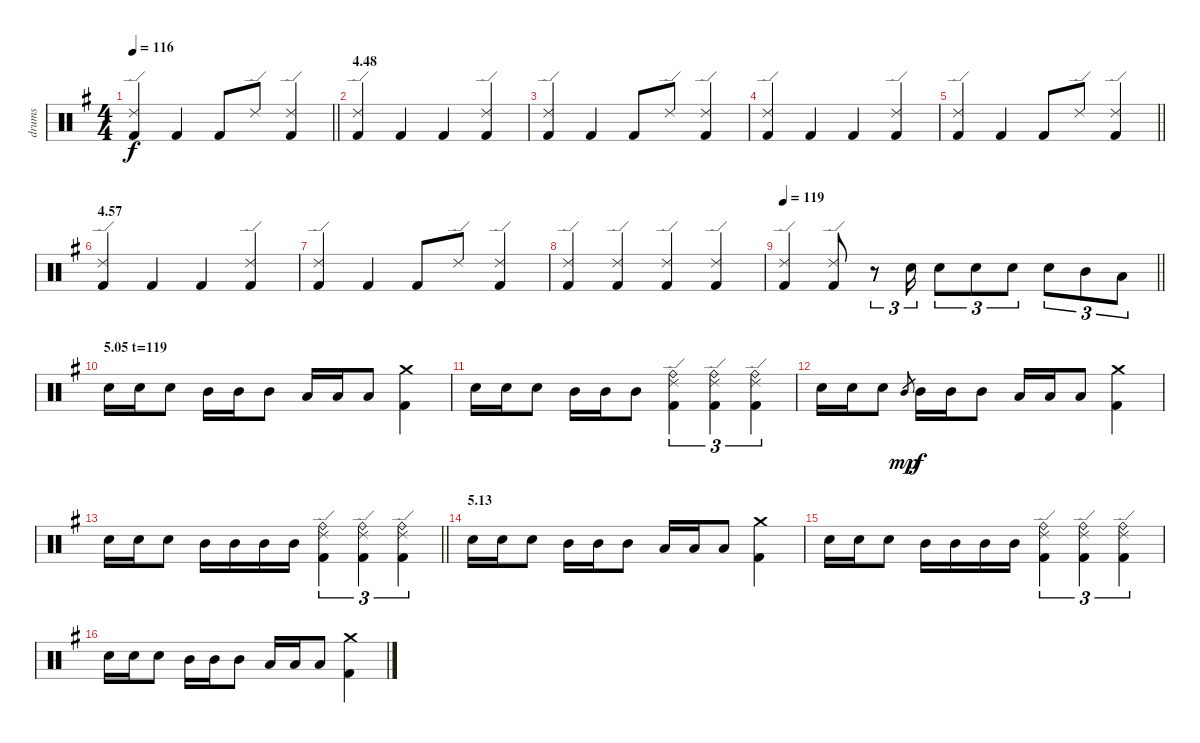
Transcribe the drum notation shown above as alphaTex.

\track ("drums" "drums") {instrument percussion}
\staff {score}
\articulation defaults
\ts (4 4)
\tempo 116
\clef neutral
\barLineRight lightlight
\ks g
("Ride (edge) 2" "Kick (hit) 2").4{dy f} "Kick (hit) 2".4 "Kick (hit) 2".8 "Ride (edge) 2".8 ("Ride (edge) 2" "Kick (hit) 2").4 |
\section ("" "4.48")
("Ride (edge) 2" "Kick (hit) 2").4 "Kick (hit) 2".4 "Kick (hit) 2".4 ("Ride (edge) 2" "Kick (hit) 2").4 |
("Ride (edge) 2" "Kick (hit) 2").4 "Kick (hit) 2".4 "Kick (hit) 2".8 "Ride (edge) 2".8 ("Ride (edge) 2" "Kick (hit) 2").4 |
("Ride (edge) 2" "Kick (hit) 2").4 "Kick (hit) 2".4 "Kick (hit) 2".4 ("Ride (edge) 2" "Kick (hit) 2").4 |
\barLineRight lightlight
("Ride (edge) 2" "Kick (hit) 2").4 "Kick (hit) 2".4 "Kick (hit) 2".8 "Ride (edge) 2".8 ("Ride (edge) 2" "Kick (hit) 2").4 |
\section ("" "4.57")
("Ride (edge) 2" "Kick (hit) 2").4 "Kick (hit) 2".4 "Kick (hit) 2".4 ("Ride (edge) 2" "Kick (hit) 2").4 |
("Ride (edge) 2" "Kick (hit) 2").4 "Kick (hit) 2".4 "Kick (hit) 2".8 "Ride (edge) 2".8 ("Ride (edge) 2" "Kick (hit) 2").4 |
("Ride (edge) 2" "Kick (hit) 2").4 ("Ride (edge) 2" "Kick (hit) 2").4 ("Ride (edge) 2" "Kick (hit) 2").4 ("Ride (edge) 2" "Kick (hit) 2").4 |
\tempo 119
\barLineRight lightlight
("Ride (edge) 2" "Kick (hit) 2").4 ("Ride (edge) 2" "Kick (hit) 2").8 r.8{tu (3 2)} "Electric Snare (hit)".16{tu (3 2)} "Electric Snare (hit)".8{tu (3 2)} "Electric Snare (hit)".8{tu (3 2)} "Electric Snare (hit)".8{tu (3 2)} "Electric Snare (hit)".8{tu (3 2)} "Mid Tom (hit)".8{tu (3 2)} "Low Tom (hit)".8{tu (3 2)} |
\section ("" "5.05 t=119")
"Electric Snare (hit)".16 "Electric Snare (hit)".16 "Electric Snare (hit)".8 "Mid Tom (hit)".16 "Mid Tom (hit)".16 "Mid Tom (hit)".8 "Low Tom (hit)".16 "Low Tom (hit)".16 "Low Tom (hit)".8 ("Crash medium (hit)" "Kick (hit) 2").4 |
"Electric Snare (hit)".16 "Electric Snare (hit)".16 "Electric Snare (hit)".8 "Mid Tom (hit)".16 "Mid Tom (hit)".16 "Mid Tom (hit)".8 ("Ride (bell)" "Ride (edge) 2" "Kick (hit) 2").4{tu (3 2)} ("Ride (bell)" "Ride (edge) 2" "Kick (hit) 2").4{tu (3 2)} ("Ride (bell)" "Ride (edge) 2" "Kick (hit) 2").4{tu (3 2)} |
"Electric Snare (hit)".16 "Electric Snare (hit)".16 "Electric Snare (hit)".8 "Mid Tom (hit)".8{gr dy mp} "Mid Tom (hit)".16{dy f} "Mid Tom (hit)".16 "Mid Tom (hit)".8 "Low Tom (hit)".16 "Low Tom (hit)".16 "Low Tom (hit)".8 ("Crash medium (hit)" "Kick (hit) 2").4 |
\barLineRight lightlight "Electric Snare (hit)".16 "Electric Snare (hit)".16 "Electric Snare (hit)".8 "Mid Tom (hit)".16 "Mid Tom (hit)".16 "Mid Tom (hit)".16 "Mid Tom (hit)".16
("Ride (bell)" "Ride (edge) 2" "Kick (hit) 2").4{tu (3 2)} ("Ride (bell)" "Ride (edge) 2" "Kick (hit) 2").4{tu (3 2)} ("Ride (bell)" "Ride (edge) 2" "Kick (hit) 2").4{tu (3 2)} |
\section ("" "5.13")
"Electric Snare (hit)".16 "Electric Snare (hit)".16 "Electric Snare (hit)".8 "Mid Tom (hit)".16 "Mid Tom (hit)".16 "Mid Tom (hit)".8 "Low Tom (hit)".16 "Low Tom (hit)".16 "Low Tom (hit)".8 ("Crash medium (hit)" "Kick (hit) 2").4 |
"Electric Snare (hit)".16 "Electric Snare (hit)".16 "Electric Snare (hit)".8 "Mid Tom (hit)".16 "Mid Tom (hit)".16 "Mid Tom (hit)".16 "Mid Tom (hit)".16 ("Ride (bell)" "Ride (edge) 2" "Kick (hit) 2").4{tu (3 2)} ("Ride (bell)" "Ride (edge) 2" "Kick (hit) 2").4{tu (3 2)} ("Ride (bell)" "Ride (edge) 2" "Kick (hit) 2").4{tu (3 2)} |
"Electric Snare (hit)".16 "Electric Snare (hit)".16 "Electric Snare (hit)".8 "Mid Tom (hit)".16 "Mid Tom (hit)".16 "Mid Tom (hit)".8 "Low Tom (hit)".16 "Low Tom (hit)".16 "Low Tom (hit)".8 ("Crash medium (hit)" "Kick (hit) 2").4
